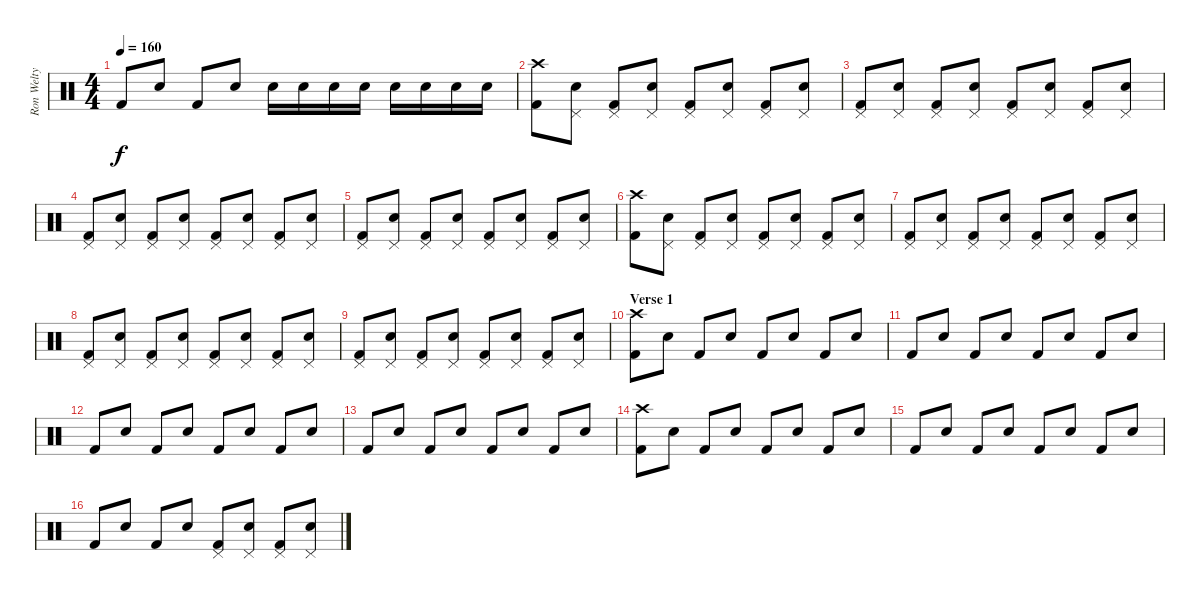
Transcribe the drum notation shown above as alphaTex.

\track ("Ron Welty" "Ron Welty") {instrument percussion}
\staff {score}
\articulation defaults
\ts (4 4)
\tempo 160
\clef neutral
\ks c "Kick (hit) 2".8{dy f} "Snare (hit) 2".8 "Kick (hit) 2".8 "Snare (hit) 2".8 "Snare (hit) 2".16 "Snare (hit) 2".16 "Snare (hit) 2".16 "Snare (hit) 2".16 "Snare (hit) 2".16 "Snare (hit) 2".16 "Snare (hit) 2".16 "Snare (hit) 2".16
|
("Crash high (hit)" "Kick (hit) 2").8 ("Pedal Hi-Hat (hit)" "Snare (hit) 2").8 ("Pedal Hi-Hat (hit)" "Kick (hit) 2").8 ("Pedal Hi-Hat (hit)" "Snare (hit) 2").8 ("Pedal Hi-Hat (hit)" "Kick (hit) 2").8 ("Pedal Hi-Hat (hit)" "Snare (hit) 2").8 ("Pedal Hi-Hat (hit)" "Kick (hit) 2").8 ("Pedal Hi-Hat (hit)" "Snare (hit) 2").8 |
("Pedal Hi-Hat (hit)" "Kick (hit) 2").8 ("Pedal Hi-Hat (hit)" "Snare (hit) 2").8 ("Pedal Hi-Hat (hit)" "Kick (hit) 2").8 ("Pedal Hi-Hat (hit)" "Snare (hit) 2").8 ("Pedal Hi-Hat (hit)" "Kick (hit) 2").8 ("Pedal Hi-Hat (hit)" "Snare (hit) 2").8 ("Pedal Hi-Hat (hit)" "Kick (hit) 2").8 ("Pedal Hi-Hat (hit)" "Snare (hit) 2").8 |
("Pedal Hi-Hat (hit)" "Kick (hit) 2").8 ("Pedal Hi-Hat (hit)" "Snare (hit) 2").8 ("Pedal Hi-Hat (hit)" "Kick (hit) 2").8 ("Pedal Hi-Hat (hit)" "Snare (hit) 2").8 ("Pedal Hi-Hat (hit)" "Kick (hit) 2").8 ("Pedal Hi-Hat (hit)" "Snare (hit) 2").8 ("Pedal Hi-Hat (hit)" "Kick (hit) 2").8 ("Pedal Hi-Hat (hit)" "Snare (hit) 2").8 |
("Pedal Hi-Hat (hit)" "Kick (hit) 2").8 ("Pedal Hi-Hat (hit)" "Snare (hit) 2").8 ("Pedal Hi-Hat (hit)" "Kick (hit) 2").8 ("Pedal Hi-Hat (hit)" "Snare (hit) 2").8 ("Pedal Hi-Hat (hit)" "Kick (hit) 2").8 ("Pedal Hi-Hat (hit)" "Snare (hit) 2").8 ("Pedal Hi-Hat (hit)" "Kick (hit) 2").8 ("Pedal Hi-Hat (hit)" "Snare (hit) 2").8 |
("Crash high (hit)" "Kick (hit) 2").8 ("Pedal Hi-Hat (hit)" "Snare (hit) 2").8 ("Pedal Hi-Hat (hit)" "Kick (hit) 2").8 ("Pedal Hi-Hat (hit)" "Snare (hit) 2").8 ("Pedal Hi-Hat (hit)" "Kick (hit) 2").8 ("Pedal Hi-Hat (hit)" "Snare (hit) 2").8 ("Pedal Hi-Hat (hit)" "Kick (hit) 2").8 ("Pedal Hi-Hat (hit)" "Snare (hit) 2").8 |
("Pedal Hi-Hat (hit)" "Kick (hit) 2").8 ("Pedal Hi-Hat (hit)" "Snare (hit) 2").8 ("Pedal Hi-Hat (hit)" "Kick (hit) 2").8 ("Pedal Hi-Hat (hit)" "Snare (hit) 2").8 ("Pedal Hi-Hat (hit)" "Kick (hit) 2").8 ("Pedal Hi-Hat (hit)" "Snare (hit) 2").8 ("Pedal Hi-Hat (hit)" "Kick (hit) 2").8 ("Pedal Hi-Hat (hit)" "Snare (hit) 2").8 |
("Pedal Hi-Hat (hit)" "Kick (hit) 2").8 ("Pedal Hi-Hat (hit)" "Snare (hit) 2").8 ("Pedal Hi-Hat (hit)" "Kick (hit) 2").8 ("Pedal Hi-Hat (hit)" "Snare (hit) 2").8 ("Pedal Hi-Hat (hit)" "Kick (hit) 2").8 ("Pedal Hi-Hat (hit)" "Snare (hit) 2").8 ("Pedal Hi-Hat (hit)" "Kick (hit) 2").8 ("Pedal Hi-Hat (hit)" "Snare (hit) 2").8 |
("Pedal Hi-Hat (hit)" "Kick (hit) 2").8 ("Pedal Hi-Hat (hit)" "Snare (hit) 2").8 ("Pedal Hi-Hat (hit)" "Kick (hit) 2").8 ("Pedal Hi-Hat (hit)" "Snare (hit) 2").8 ("Pedal Hi-Hat (hit)" "Kick (hit) 2").8 ("Pedal Hi-Hat (hit)" "Snare (hit) 2").8 ("Pedal Hi-Hat (hit)" "Kick (hit) 2").8 ("Pedal Hi-Hat (hit)" "Snare (hit) 2").8 |
\section ("" "Verse 1")
("Crash high (hit)" "Kick (hit) 2").8 "Snare (hit) 2".8 "Kick (hit) 2".8 "Snare (hit) 2".8 "Kick (hit) 2".8 "Snare (hit) 2".8 "Kick (hit) 2".8 "Snare (hit) 2".8 |
"Kick (hit) 2".8 "Snare (hit) 2".8 "Kick (hit) 2".8 "Snare (hit) 2".8 "Kick (hit) 2".8 "Snare (hit) 2".8 "Kick (hit) 2".8 "Snare (hit) 2".8 |
"Kick (hit) 2".8 "Snare (hit) 2".8 "Kick (hit) 2".8 "Snare (hit) 2".8 "Kick (hit) 2".8 "Snare (hit) 2".8 "Kick (hit) 2".8 "Snare (hit) 2".8 |
"Kick (hit) 2".8 "Snare (hit) 2".8 "Kick (hit) 2".8 "Snare (hit) 2".8 "Kick (hit) 2".8 "Snare (hit) 2".8 "Kick (hit) 2".8 "Snare (hit) 2".8 |
("Crash high (hit)" "Kick (hit) 2").8 "Snare (hit) 2".8 "Kick (hit) 2".8 "Snare (hit) 2".8 "Kick (hit) 2".8 "Snare (hit) 2".8 "Kick (hit) 2".8 "Snare (hit) 2".8 |
"Kick (hit) 2".8 "Snare (hit) 2".8 "Kick (hit) 2".8 "Snare (hit) 2".8 "Kick (hit) 2".8 "Snare (hit) 2".8 "Kick (hit) 2".8 "Snare (hit) 2".8 |
"Kick (hit) 2".8 "Snare (hit) 2".8 "Kick (hit) 2".8 "Snare (hit) 2".8 ("Pedal Hi-Hat (hit)" "Kick (hit) 2").8 ("Pedal Hi-Hat (hit)" "Snare (hit) 2").8 ("Pedal Hi-Hat (hit)" "Kick (hit) 2").8 ("Pedal Hi-Hat (hit)" "Snare (hit) 2").8
